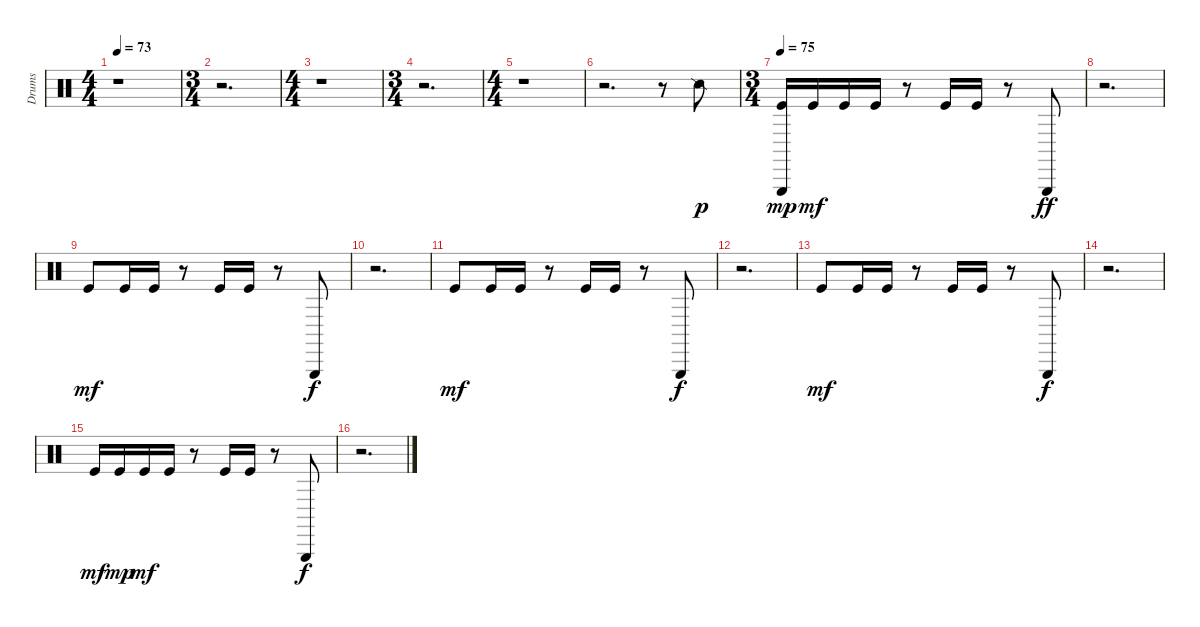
\track ("Drums" "Drums") {instrument percussion}
\staff {score}
\articulation defaults
\ts (4 4)
\tempo 73
\clef neutral
\ks c
r.1{dy p} |
\ts (3 4)
r.2{d} |
\ts (4 4)
r.1 |
\ts (3 4)
r.2{d} |
\ts (4 4)
r.1 |
r.2{d} r.8 "Snare (side stick) 2".8 |
\ts (3 4)
\tempo 75
("Kick (hit)" "Triangle (hit)").16{dy mp} "Kick (hit)".16{dy mf} "Kick (hit)".16 "Kick (hit)".16 r.8 "Kick (hit)".16 "Kick (hit)".16 r.8 "Triangle (hit)".8{dy ff} |
r.2{d} |
"Kick (hit)".8{dy mf} "Kick (hit)".16 "Kick (hit)".16 r.8 "Kick (hit)".16 "Kick (hit)".16 r.8 "Triangle (hit)".8{dy f} |
r.2{d} |
"Kick (hit)".8{dy mf} "Kick (hit)".16 "Kick (hit)".16 r.8 "Kick (hit)".16 "Kick (hit)".16 r.8 "Triangle (hit)".8{dy f} |
r.2{d} |
"Kick (hit)".8{dy mf} "Kick (hit)".16 "Kick (hit)".16 r.8 "Kick (hit)".16 "Kick (hit)".16 r.8 "Triangle (hit)".8{dy f} |
r.2{d} |
"Kick (hit)".16{dy mf} "Kick (hit)".16{dy mp} "Kick (hit)".16{dy mf} "Kick (hit)".16 r.8 "Kick (hit)".16 "Kick (hit)".16 r.8 "Triangle (hit)".8{dy f} |
r.2{d}
